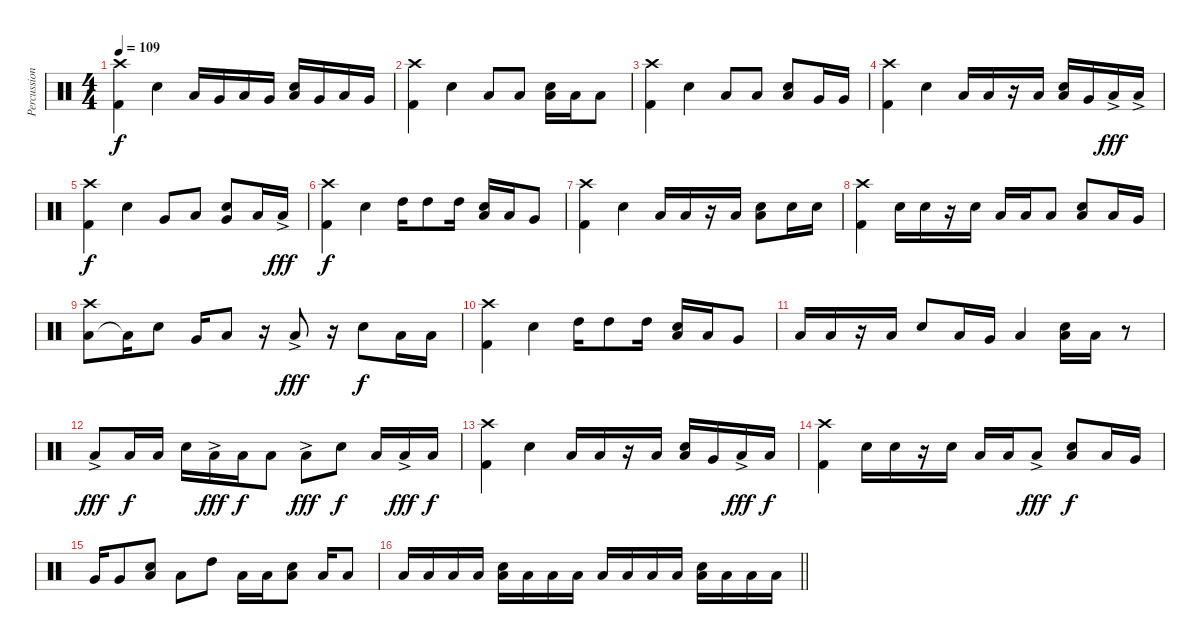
\track ("Percussion" "Percussion") {instrument percussion}
\staff {score}
\articulation defaults
\ts (4 4)
\tempo 109
\clef neutral
\ks c
("Crash high (hit)" "Kick (hit) 2").4{dy f balance 8} "Snare (hit) 2".4{balance 8} "Low Floor Tom (hit)".16{balance 15} "Very Low Tom (hit)".16{balance 12} "Low Floor Tom (hit)".16{balance 11} "Very Low Tom (hit)".16{balance 8} ("Snare (hit) 2" "Low Floor Tom (hit)").16{balance 5} "Very Low Tom (hit)".16{balance 4} "Low Floor Tom (hit)".16{balance 3} "Very Low Tom (hit)".16{balance 2} |
("Crash high (hit)" "Kick (hit) 2").4{balance 8} "Snare (hit) 2".4{balance 8} "Low Tom (hit)".8{balance 16} "Low Tom (hit)".8{balance 12} ("Snare (hit) 2" "Low Tom (hit)").16{balance 5} "Low Tom (hit)".16{balance 3} "Low Floor Tom (hit)".8{balance 0} |
("Crash high (hit)" "Kick (hit) 2").4{balance 8} "Snare (hit) 2".4 "Low Tom (hit)".8{volume 16 balance 16} "Low Tom (hit)".8{volume 16 balance 12} ("Snare (hit) 2" "Low Floor Tom (hit)").8{balance 11} "Very Low Tom (hit)".16{balance 16} "Very Low Tom (hit)".16{balance 0} |
("Crash high (hit)" "Kick (hit) 2").4{balance 8} "Snare (hit) 2".4 "Low Tom (hit)".16{balance 0} "Low Tom (hit)".16{balance 2} r.16 "Low Tom (hit)".16{balance 6} ("Low Floor Tom (hit)" "Snare (hit) 2").16{balance 5} "Very Low Tom (hit)".16{balance 16} "Low Floor Tom (hit)"{ac}.16{dy fff balance 15} "Low Floor Tom (hit)"{ac}.16{balance 0} |
("Crash high (hit)" "Kick (hit) 2").4{dy f balance 8} "Snare (hit) 2".4 "Very Low Tom (hit)".8{balance 16} "Low Tom (hit)".8{balance 0} ("Snare (hit) 2" "Very Low Tom (hit)").8{balance 16} "Low Tom (hit)".16{balance 16} "Low Floor Tom (hit)"{ac}.16{dy fff balance 0} |
("Crash high (hit)" "Kick (hit) 2").4{dy f balance 8} "Snare (hit) 2".4 "High Tom (hit)".16{balance 8} "High Tom (hit)".8{balance 0} "High Tom (hit)".16{balance 1} ("Low Tom (hit)" "Snare (hit) 2").16{balance 16} "Low Tom (hit)".16{balance 16} "Very Low Tom (hit)".8{balance 0} |
("Crash high (hit)" "Kick (hit) 2").4{balance 8} "Snare (hit) 2".4 "Low Tom (hit)".16{balance 16} "Low Tom (hit)".16{balance 0} r.16 "Low Tom (hit)".16{balance 1} ("Snare (hit) 2" "Low Floor Tom (hit)").8{balance 8} "Snare (hit) 2".16{balance 8} "Snare (hit) 2".16 |
("Crash high (hit)" "Kick (hit) 2").4 "Snare (hit) 2".16 "Snare (hit) 2".16 r.16 "Snare (hit) 2".16{balance 0} "Low Tom (hit)".16{balance 3} "Low Tom (hit)".16{balance 6} "Low Floor Tom (hit)".8{balance 8} ("Snare (hit) 2" "Low Floor Tom (hit)").8{balance 16} "Low Tom (hit)".16{balance 16} "Very Low Tom (hit)".16{balance 0} |
("Low Floor Tom (hit)" "Crash high (hit)").8 "Low Tom (hit)"{t}.16 "Snare (hit) 2".8 "Very Low Tom (hit)".16{balance 16} "Low Tom (hit)".8{balance 0} r.16 "Low Floor Tom (hit)"{ac}.8{dy fff balance 16} r.16 "Snare (hit) 2".8{dy f balance 8} "Low Tom (hit)".16{balance 0} "Low Tom (hit)".16{balance 16} |
("Crash high (hit)" "Kick (hit) 2").4{balance 8} "Snare (hit) 2".4 "High Tom (hit)".16{balance 8} "High Tom (hit)".8{balance 0} "High Tom (hit)".16{balance 1} ("Low Tom (hit)" "Snare (hit) 2").16{balance 8} "Low Tom (hit)".16{balance 16} "Very Low Tom (hit)".8{balance 0} |
"Low Tom (hit)".16{balance 8} "Low Tom (hit)".16{balance 13} r.16 "Low Tom (hit)".16{balance 0} "Snare (hit) 2".8{balance 8} "Low Floor Tom (hit)".16{balance 13} "Very Low Tom (hit)".16{balance 14} "Low Tom (hit)".4{balance 16} ("Low Floor Tom (hit)" "Snare (hit) 2").16{balance 8} "Low Tom (hit)".16{balance 0} r.8 |
"Low Floor Tom (hit)"{ac}.8{dy fff balance 8} "Low Tom (hit)".16{dy f balance 16} "Low Tom (hit)".16{balance 12} "Snare (hit) 2".16{balance 8} "Low Floor Tom (hit)"{ac}.16{dy fff balance 3} "Low Tom (hit)".16{dy f balance 0} "Low Tom (hit)".8{balance 0} "Low Floor Tom (hit)"{ac}.8{dy fff balance 16} "Snare (hit) 2".8{dy f balance 8} "Low Tom (hit)".16{balance 5} "Low Floor Tom (hit)"{ac}.16{dy fff balance 0} "Low Tom (hit)".16{dy f balance 16} |
("Crash high (hit)" "Kick (hit) 2").4{balance 8} "Snare (hit) 2".4 "Low Tom (hit)".16{balance 0} "Low Tom (hit)".16{balance 2} r.16 "Low Tom (hit)".16{balance 6} ("Low Floor Tom (hit)" "Snare (hit) 2").16{balance 5} "Very Low Tom (hit)".16{balance 16} "Low Floor Tom (hit)"{ac}.16{dy fff balance 15} "Low Floor Tom (hit)".16{dy f balance 0} |
("Crash high (hit)" "Kick (hit) 2").4{balance 8} "Snare (hit) 2".16 "Snare (hit) 2".16 r.16 "Snare (hit) 2".16{balance 0} "Low Tom (hit)".16{balance 3} "Low Tom (hit)".16{balance 6} "Low Floor Tom (hit)"{ac}.8{dy fff balance 8} ("Snare (hit) 2" "Low Floor Tom (hit)").8{dy f balance 16} "Low Tom (hit)".16{balance 16} "Very Low Tom (hit)".16{balance 0} |
"Very Low Tom (hit)".16{balance 2} "Very Low Tom (hit)".8{balance 3} ("Snare (hit) 2" "Low Tom (hit)").8{balance 8} "Low Tom (hit)".8{balance 11} "High Tom (hit)".8{balance 16} "Low Floor Tom (hit)".16{balance 13} "Low Floor Tom (hit)".16 ("Snare (hit) 2" "Low Tom (hit)").8{balance 8} "Low Tom (hit)".16{balance 0} "Low Floor Tom (hit)".8{balance 0} |
\barLineRight lightlight "Low Tom (hit)".16{balance 16} "Low Floor Tom (hit)".16{balance 0} "Low Tom (hit)".16{balance 16} "Low Floor Tom (hit)".16{balance 0}
("Snare (hit) 2" "Low Tom (hit)").16{balance 8} "Low Floor Tom (hit)".16{balance 16} "Low Tom (hit)".16{balance 0} "Low Floor Tom (hit)".16{balance 16} "Low Tom (hit)".16{balance 0} "Low Floor Tom (hit)".16{balance 16} "Low Tom (hit)".16{balance 0} "Low Floor Tom (hit)".16{balance 16} ("Snare (hit) 2" "Low Tom (hit)").16{balance 8} "Low Floor Tom (hit)".16{balance 0} "Low Tom (hit)".16{balance 16} "Low Floor Tom (hit)".16{balance 0}
